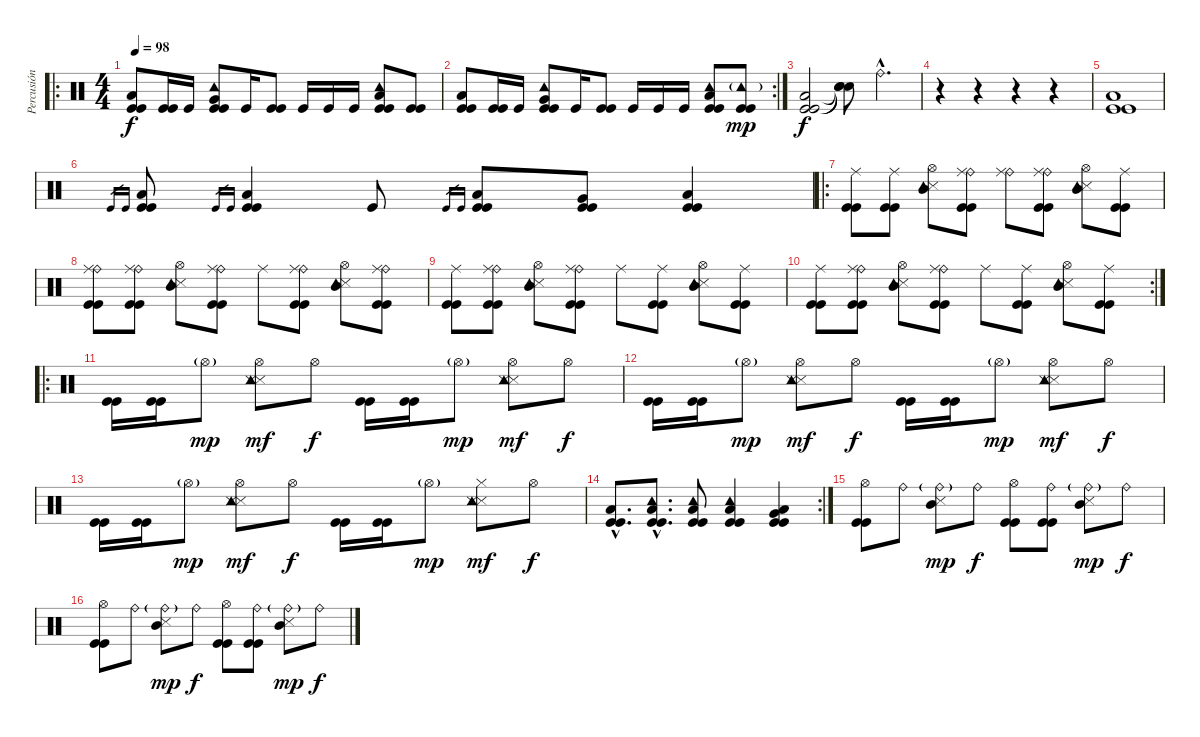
\track ("Percusión" "Percusión") {instrument percussion}
\staff {score}
\articulation defaults
\ro
\ts (4 4)
\tempo 98
\clef neutral
\ks c
("Kick (hit)" "Kick (hit)" "Low Floor Tom (hit)").8{dy f} ("Kick (hit)" "Kick (hit)").16 "Kick (hit)".16 ("Kick (hit)" "Kick (hit)" "Very Low Tom (hit)" "Tambourine (hit)").8 "Kick (hit)".16 ("Kick (hit)" "Kick (hit)").8 "Kick (hit)".16 "Kick (hit)".16 "Kick (hit)".16 ("Kick (hit)" "Kick (hit)" "Low Floor Tom (hit)" "Tambourine (hit)").8 ("Kick (hit)" "Kick (hit)").8 |
\rc 2
("Kick (hit)" "Kick (hit)" "Low Floor Tom (hit)").8 ("Kick (hit)" "Kick (hit)").16 "Kick (hit)".16 ("Kick (hit)" "Kick (hit)" "Very Low Tom (hit)" "Tambourine (hit)").8 "Kick (hit)".16 ("Kick (hit)" "Kick (hit)").8 "Kick (hit)".16 "Kick (hit)".16 "Kick (hit)".16 ("Kick (hit)" "Kick (hit)" "Low Floor Tom (hit)" "Tambourine (hit)").8 ("Kick (hit)" "Kick (hit)" "Tambourine (hit)"{g}).8{dy mp} |
("Kick (hit)" "Kick (hit)" "Low Floor Tom (hit)").2{dy f} ("Snare (hit)"{t} "Snare (hit)"{t} "Snare (hit)"{t}).8 "Ride (bell)"{hac}.4{d} |
r.4 r.4 r.4 r.4 |
("Kick (hit)" "Kick (hit)" "Low Floor Tom (hit)").1 |
"Kick (hit)".16{gr} "Kick (hit)".16{gr} ("Kick (hit)" "Kick (hit)" "Low Floor Tom (hit)").8 "Kick (hit)".16{gr} "Kick (hit)".16{gr} ("Kick (hit)" "Kick (hit)" "Low Floor Tom (hit)").4 "Kick (hit)".8 "Kick (hit)".16{gr} "Kick (hit)".16{gr} ("Kick (hit)" "Kick (hit)" "Low Floor Tom (hit)").8 ("Kick (hit)" "Kick (hit)" "Very Low Tom (hit)").8 ("Kick (hit)" "Kick (hit)" "Low Tom (hit)").4 |
\ro
("Kick (hit)" "Kick (hit)" "Ride (middle)").8 ("Kick (hit)" "Kick (hit)" "Ride (middle)").8 ("Snare (side stick) 3" "Mid Tom (hit)" "Hi-Hat (open)" "Tambourine (hit)").8 ("Kick (hit)" "Kick (hit)" "Ride (bell)" "Ride (middle)").8 ("Ride (bell)" "Ride (middle)").8 ("Kick (hit)" "Kick (hit)" "Ride (bell)" "Ride (middle)").8 ("Snare (side stick) 3" "Mid Tom (hit)" "Hi-Hat (open)" "Tambourine (hit)").8 ("Kick (hit)" "Kick (hit)" "Ride (middle)").8 |
("Kick (hit)" "Kick (hit)" "Ride (bell)" "Ride (middle)").8 ("Kick (hit)" "Kick (hit)" "Ride (bell)" "Ride (middle)").8 ("Snare (side stick) 3" "Mid Tom (hit)" "Hi-Hat (open)" "Tambourine (hit)").8 ("Kick (hit)" "Kick (hit)" "Ride (bell)" "Ride (middle)").8 "Ride (middle)".8 ("Kick (hit)" "Kick (hit)" "Ride (bell)" "Ride (middle)").8 ("Snare (side stick) 3" "Mid Tom (hit)" "Hi-Hat (open)" "Tambourine (hit)").8 ("Kick (hit)" "Kick (hit)" "Ride (bell)" "Ride (middle)").8 |
("Kick (hit)" "Kick (hit)" "Ride (middle)").8 ("Kick (hit)" "Kick (hit)" "Ride (bell)" "Ride (middle)").8 ("Snare (side stick) 3" "Mid Tom (hit)" "Hi-Hat (open)" "Tambourine (hit)").8 ("Kick (hit)" "Kick (hit)" "Ride (bell)" "Ride (middle)").8 "Ride (middle)".8 ("Kick (hit)" "Kick (hit)" "Ride (middle)").8 ("Snare (side stick) 3" "Mid Tom (hit)" "Hi-Hat (open)" "Tambourine (hit)").8 ("Kick (hit)" "Kick (hit)" "Ride (middle)").8 |
\rc 2
("Kick (hit)" "Kick (hit)" "Ride (middle)").8 ("Kick (hit)" "Kick (hit)" "Ride (bell)" "Ride (middle)").8 ("Snare (side stick) 3" "Mid Tom (hit)" "Hi-Hat (open)" "Tambourine (hit)").8 ("Kick (hit)" "Kick (hit)" "Ride (bell)" "Ride (middle)").8 "Ride (middle)".8 ("Kick (hit)" "Kick (hit)" "Ride (middle)").8 ("Snare (side stick) 3" "Mid Tom (hit)" "Hi-Hat (open)" "Tambourine (hit)").8 ("Kick (hit)" "Kick (hit)" "Ride (middle)").8 |
\ro
("Kick (hit)" "Kick (hit)").16 ("Kick (hit)" "Kick (hit)").16 "Hi-Hat (open)"{g}.8{dy mp} ("Snare (side stick) 3" "Snare (side stick) 3" "Tambourine (hit)" "Hi-Hat (open)").8{dy mf} "Hi-Hat (open)".8{dy f} ("Kick (hit)" "Kick (hit)").16 ("Kick (hit)" "Kick (hit)").16 "Hi-Hat (open)"{g}.8{dy mp} ("Snare (side stick) 3" "Snare (side stick) 3" "Tambourine (hit)" "Hi-Hat (open)").8{dy mf} "Hi-Hat (open)".8{dy f} |
("Kick (hit)" "Kick (hit)").16 ("Kick (hit)" "Kick (hit)").16 "Hi-Hat (open)"{g}.8{dy mp} ("Snare (side stick) 3" "Snare (side stick) 3" "Tambourine (hit)" "Hi-Hat (open)").8{dy mf} "Hi-Hat (open)".8{dy f} ("Kick (hit)" "Kick (hit)").16 ("Kick (hit)" "Kick (hit)").16 "Hi-Hat (open)"{g}.8{dy mp} ("Snare (side stick) 3" "Snare (side stick) 3" "Tambourine (hit)" "Hi-Hat (open)").8{dy mf} "Hi-Hat (open)".8{dy f} |
("Kick (hit)" "Kick (hit)").16 ("Kick (hit)" "Kick (hit)").16 "Hi-Hat (open)"{g}.8{dy mp} ("Snare (side stick) 3" "Snare (side stick) 3" "Tambourine (hit)" "Hi-Hat (open)").8{dy mf} "Hi-Hat (open)".8{dy f} ("Kick (hit)" "Kick (hit)").16 ("Kick (hit)" "Kick (hit)").16 "Hi-Hat (open)"{g}.8{dy mp} ("Snare (side stick) 3" "Snare (side stick) 3" "Tambourine (hit)" "Hi-Hat (closed)").8{dy mf} "Hi-Hat (open)".8{dy f} |
\rc 2
("Kick (hit)"{hac} "Kick (hit)"{hac} "Low Floor Tom (hit)"{hac}).8{d} ("Kick (hit)"{hac} "Kick (hit)"{hac} "Low Floor Tom (hit)"{hac} "Tambourine (hit)"{hac}).8{d} ("Kick (hit)" "Kick (hit)" "Low Floor Tom (hit)" "Tambourine (hit)").8 ("Kick (hit)" "Kick (hit)" "Low Floor Tom (hit)" "Tambourine (hit)").4 ("Kick (hit)" "Kick (hit)" "Low Floor Tom (hit)" "Very Low Tom (hit)").4 |
("Kick (hit)" "Kick (hit)" "Hi-Hat (open)").8 "Ride (bell)".8 ("Snare (side stick) 3" "Mid Tom (hit)" "Ride (bell)"{g}).8{dy mp} "Ride (bell)".8{dy f} ("Kick (hit)" "Kick (hit)" "Hi-Hat (open)").8 ("Kick (hit)" "Kick (hit)" "Ride (bell)").8 ("Snare (side stick) 3" "Mid Tom (hit)" "Ride (bell)"{g}).8{dy mp} "Ride (bell)".8{dy f} |
("Kick (hit)" "Kick (hit)" "Hi-Hat (open)").8 "Ride (bell)".8 ("Snare (side stick) 3" "Mid Tom (hit)" "Ride (bell)"{g}).8{dy mp} "Ride (bell)".8{dy f} ("Kick (hit)" "Kick (hit)" "Hi-Hat (open)").8 ("Kick (hit)" "Kick (hit)" "Ride (bell)").8 ("Snare (side stick) 3" "Mid Tom (hit)" "Ride (bell)"{g}).8{dy mp} "Ride (bell)".8{dy f}
